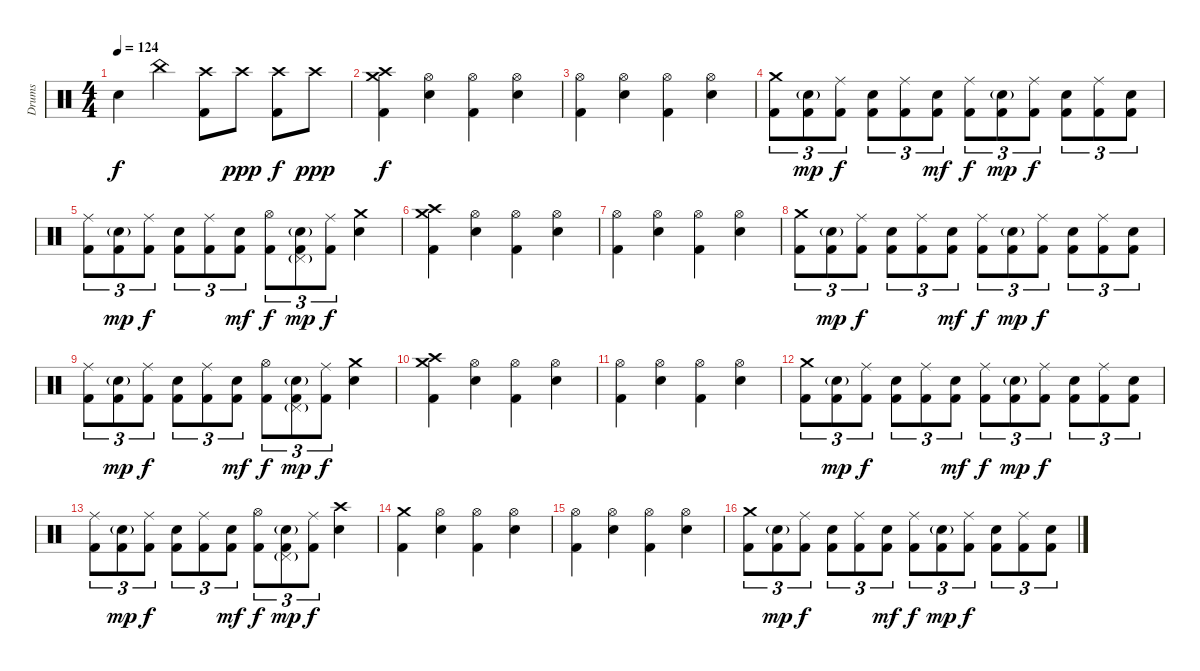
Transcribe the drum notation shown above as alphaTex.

\track ("Drums" "Drums") {instrument percussion}
\staff {score}
\articulation defaults
\ts (4 4)
\tempo 124
\clef neutral
\ks c "Snare (hit)"{t}.4{dy f} "China (hit)".4
("Crash high (hit)" "Kick (hit) 2").8 "Crash high (hit)".8{dy ppp} ("Crash high (hit)" "Kick (hit) 2").8{dy f} "Crash high (hit)".8{dy ppp} |
("Crash medium (hit)" "Crash high (hit)" "Kick (hit) 2").4{dy f} ("Hi-Hat (open)" "Snare (hit) 2").4 ("Hi-Hat (open)" "Kick (hit) 2").4 ("Hi-Hat (open)" "Snare (hit) 2").4 |
("Hi-Hat (open)" "Kick (hit) 2").4 ("Hi-Hat (open)" "Snare (hit) 2").4 ("Hi-Hat (open)" "Kick (hit) 2").4 ("Hi-Hat (open)" "Snare (hit) 2").4 |
("Crash medium (hit)" "Kick (hit) 2").8{tu (3 2)} ("Snare (hit) 2"{g} "Kick (hit) 2").8{tu (3 2) dy mp} ("Ride (middle)" "Kick (hit) 2").8{tu (3 2) dy f} ("Snare (hit) 2" "Kick (hit) 2").8{tu (3 2)} ("Ride (middle)" "Kick (hit) 2").8{tu (3 2)} ("Snare (hit) 2" "Kick (hit) 2").8{tu (3 2) dy mf} ("Ride (middle)" "Kick (hit) 2").8{tu (3 2) dy f} ("Snare (hit) 2"{g} "Kick (hit) 2").8{tu (3 2) dy mp} ("Ride (middle)" "Kick (hit) 2").8{tu (3 2) dy f} ("Snare (hit) 2" "Kick (hit) 2").8{tu (3 2)} ("Ride (middle)" "Kick (hit) 2").8{tu (3 2)} ("Snare (hit) 2" "Kick (hit) 2").8{tu (3 2)} |
("Ride (middle)" "Kick (hit) 2").8{tu (3 2)} ("Snare (hit) 2"{g} "Kick (hit) 2").8{tu (3 2) dy mp} ("Ride (middle)" "Kick (hit) 2").8{tu (3 2) dy f} ("Snare (hit) 2" "Kick (hit) 2").8{tu (3 2)} ("Ride (middle)" "Kick (hit) 2").8{tu (3 2)} ("Snare (hit) 2" "Kick (hit) 2").8{tu (3 2) dy mf} ("Hi-Hat (open)" "Kick (hit) 2").8{tu (3 2) dy f} ("Pedal Hi-Hat (hit)"{g} "Snare (hit) 2"{g} "Kick (hit) 2").8{tu (3 2) dy mp} ("Ride (middle)" "Kick (hit) 2").8{tu (3 2) dy f} ("Crash medium (hit)" "Snare (hit) 2").4 |
("Crash medium (hit)" "Crash high (hit)" "Kick (hit) 2").4 ("Hi-Hat (open)" "Snare (hit) 2").4 ("Hi-Hat (open)" "Kick (hit) 2").4 ("Hi-Hat (open)" "Snare (hit) 2").4 |
("Hi-Hat (open)" "Kick (hit) 2").4 ("Hi-Hat (open)" "Snare (hit) 2").4 ("Hi-Hat (open)" "Kick (hit) 2").4 ("Hi-Hat (open)" "Snare (hit) 2").4 |
("Crash medium (hit)" "Kick (hit) 2").8{tu (3 2)} ("Snare (hit) 2"{g} "Kick (hit) 2").8{tu (3 2) dy mp} ("Ride (middle)" "Kick (hit) 2").8{tu (3 2) dy f} ("Snare (hit) 2" "Kick (hit) 2").8{tu (3 2)} ("Ride (middle)" "Kick (hit) 2").8{tu (3 2)} ("Snare (hit) 2" "Kick (hit) 2").8{tu (3 2) dy mf} ("Ride (middle)" "Kick (hit) 2").8{tu (3 2) dy f} ("Snare (hit) 2"{g} "Kick (hit) 2").8{tu (3 2) dy mp} ("Ride (middle)" "Kick (hit) 2").8{tu (3 2) dy f} ("Snare (hit) 2" "Kick (hit) 2").8{tu (3 2)} ("Ride (middle)" "Kick (hit) 2").8{tu (3 2)} ("Snare (hit) 2" "Kick (hit) 2").8{tu (3 2)} |
("Ride (middle)" "Kick (hit) 2").8{tu (3 2)} ("Snare (hit) 2"{g} "Kick (hit) 2").8{tu (3 2) dy mp} ("Ride (middle)" "Kick (hit) 2").8{tu (3 2) dy f} ("Snare (hit) 2" "Kick (hit) 2").8{tu (3 2)} ("Ride (middle)" "Kick (hit) 2").8{tu (3 2)} ("Snare (hit) 2" "Kick (hit) 2").8{tu (3 2) dy mf} ("Hi-Hat (open)" "Kick (hit) 2").8{tu (3 2) dy f} ("Pedal Hi-Hat (hit)"{g} "Snare (hit) 2"{g} "Kick (hit) 2").8{tu (3 2) dy mp} ("Ride (middle)" "Kick (hit) 2").8{tu (3 2) dy f} ("Crash medium (hit)" "Snare (hit) 2").4 |
("Crash medium (hit)" "Crash high (hit)" "Kick (hit) 2").4 ("Hi-Hat (open)" "Snare (hit) 2").4 ("Hi-Hat (open)" "Kick (hit) 2").4 ("Hi-Hat (open)" "Snare (hit) 2").4 |
("Hi-Hat (open)" "Kick (hit) 2").4 ("Hi-Hat (open)" "Snare (hit) 2").4 ("Hi-Hat (open)" "Kick (hit) 2").4 ("Hi-Hat (open)" "Snare (hit) 2").4 |
("Crash medium (hit)" "Kick (hit) 2").8{tu (3 2)} ("Snare (hit) 2"{g} "Kick (hit) 2").8{tu (3 2) dy mp} ("Ride (middle)" "Kick (hit) 2").8{tu (3 2) dy f} ("Snare (hit) 2" "Kick (hit) 2").8{tu (3 2)} ("Ride (middle)" "Kick (hit) 2").8{tu (3 2)} ("Snare (hit) 2" "Kick (hit) 2").8{tu (3 2) dy mf} ("Ride (middle)" "Kick (hit) 2").8{tu (3 2) dy f} ("Snare (hit) 2"{g} "Kick (hit) 2").8{tu (3 2) dy mp} ("Ride (middle)" "Kick (hit) 2").8{tu (3 2) dy f} ("Snare (hit) 2" "Kick (hit) 2").8{tu (3 2)} ("Ride (middle)" "Kick (hit) 2").8{tu (3 2)} ("Snare (hit) 2" "Kick (hit) 2").8{tu (3 2)} |
("Ride (middle)" "Kick (hit) 2").8{tu (3 2)} ("Snare (hit) 2"{g} "Kick (hit) 2").8{tu (3 2) dy mp} ("Ride (middle)" "Kick (hit) 2").8{tu (3 2) dy f} ("Snare (hit) 2" "Kick (hit) 2").8{tu (3 2)} ("Ride (middle)" "Kick (hit) 2").8{tu (3 2)} ("Snare (hit) 2" "Kick (hit) 2").8{tu (3 2) dy mf} ("Hi-Hat (open)" "Kick (hit) 2").8{tu (3 2) dy f} ("Pedal Hi-Hat (hit)"{g} "Snare (hit) 2"{g} "Kick (hit) 2").8{tu (3 2) dy mp} ("Ride (middle)" "Kick (hit) 2").8{tu (3 2) dy f} ("Crash high (hit)" "Snare (hit) 2").4 |
("Crash medium (hit)" "Kick (hit) 2").4 ("Hi-Hat (open)" "Snare (hit) 2").4 ("Hi-Hat (open)" "Kick (hit) 2").4 ("Hi-Hat (open)" "Snare (hit) 2").4 |
("Hi-Hat (open)" "Kick (hit) 2").4 ("Hi-Hat (open)" "Snare (hit) 2").4 ("Hi-Hat (open)" "Kick (hit) 2").4 ("Hi-Hat (open)" "Snare (hit) 2").4 |
("Crash medium (hit)" "Kick (hit) 2").8{tu (3 2)} ("Snare (hit) 2"{g} "Kick (hit) 2").8{tu (3 2) dy mp} ("Ride (middle)" "Kick (hit) 2").8{tu (3 2) dy f} ("Snare (hit) 2" "Kick (hit) 2").8{tu (3 2)} ("Ride (middle)" "Kick (hit) 2").8{tu (3 2)} ("Snare (hit) 2" "Kick (hit) 2").8{tu (3 2) dy mf} ("Ride (middle)" "Kick (hit) 2").8{tu (3 2) dy f} ("Snare (hit) 2"{g} "Kick (hit) 2").8{tu (3 2) dy mp} ("Ride (middle)" "Kick (hit) 2").8{tu (3 2) dy f} ("Snare (hit) 2" "Kick (hit) 2").8{tu (3 2)} ("Ride (middle)" "Kick (hit) 2").8{tu (3 2)} ("Snare (hit) 2" "Kick (hit) 2").8{tu (3 2)}
